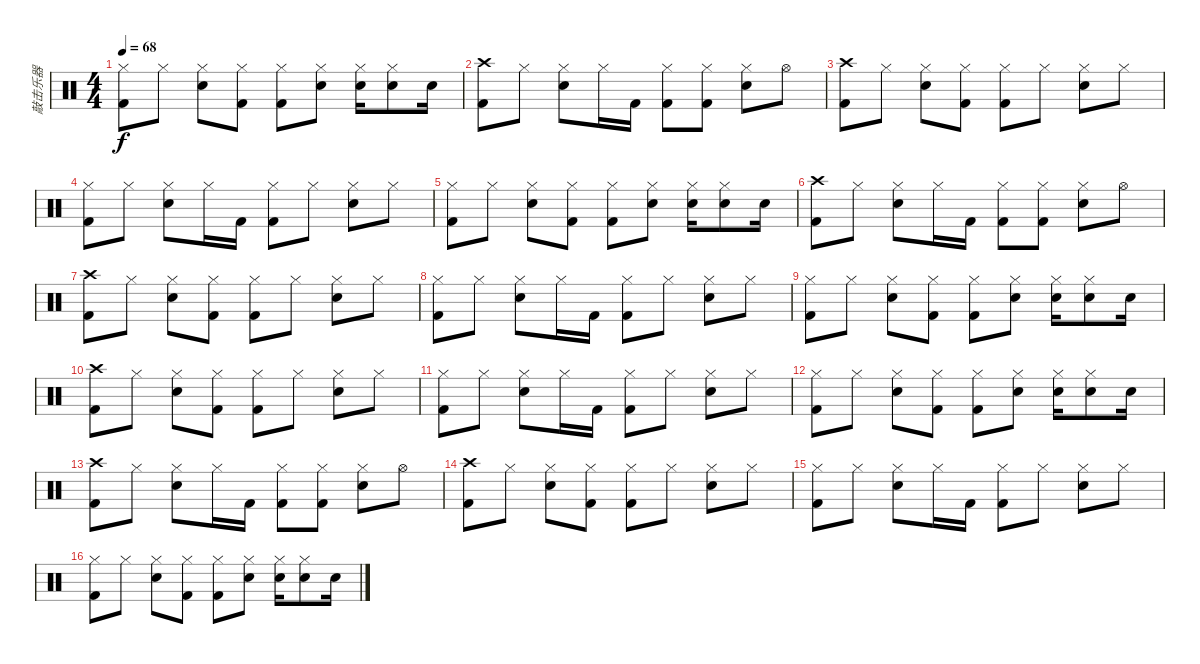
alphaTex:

\track ("敲击乐器" "敲击乐器") {instrument percussion}
\staff {score}
\articulation defaults
\ts (4 4)
\tempo 68
\clef neutral
\ks c
("Hi-Hat (closed)" "Kick (hit) 2").8{dy f} "Hi-Hat (closed)".8 ("Hi-Hat (closed)" "Snare (hit) 2").8 ("Hi-Hat (closed)" "Kick (hit) 2").8 ("Hi-Hat (closed)" "Kick (hit) 2").8 ("Hi-Hat (closed)" "Snare (hit) 2").8 ("Hi-Hat (closed)" "Snare (hit) 2").16 ("Hi-Hat (closed)" "Snare (hit) 2").8 "Snare (hit) 2".16 |
("Crash high (hit)" "Kick (hit) 2").8 "Hi-Hat (closed)".8 ("Hi-Hat (closed)" "Snare (hit) 2").8 "Hi-Hat (closed)".16 "Kick (hit) 2".16 ("Hi-Hat (closed)" "Kick (hit) 2").8 ("Hi-Hat (closed)" "Kick (hit) 2").8 ("Hi-Hat (closed)" "Snare (hit) 2").8 "Hi-Hat (open)".8 |
("Crash high (hit)" "Kick (hit) 2").8 "Hi-Hat (closed)".8 ("Hi-Hat (closed)" "Snare (hit) 2").8 ("Hi-Hat (closed)" "Kick (hit) 2").8 ("Hi-Hat (closed)" "Kick (hit) 2").8 "Hi-Hat (closed)".8 ("Hi-Hat (closed)" "Snare (hit) 2").8 "Hi-Hat (closed)".8 |
("Hi-Hat (closed)" "Kick (hit) 2").8 "Hi-Hat (closed)".8 ("Hi-Hat (closed)" "Snare (hit) 2").8 "Hi-Hat (closed)".16 "Kick (hit) 2".16 ("Hi-Hat (closed)" "Kick (hit) 2").8 "Hi-Hat (closed)".8 ("Hi-Hat (closed)" "Snare (hit) 2").8 "Hi-Hat (closed)".8 |
("Hi-Hat (closed)" "Kick (hit) 2").8 "Hi-Hat (closed)".8 ("Hi-Hat (closed)" "Snare (hit) 2").8 ("Hi-Hat (closed)" "Kick (hit) 2").8 ("Hi-Hat (closed)" "Kick (hit) 2").8 ("Hi-Hat (closed)" "Snare (hit) 2").8 ("Hi-Hat (closed)" "Snare (hit) 2").16 ("Hi-Hat (closed)" "Snare (hit) 2").8 "Snare (hit) 2".16 |
("Crash high (hit)" "Kick (hit) 2").8 "Hi-Hat (closed)".8 ("Hi-Hat (closed)" "Snare (hit) 2").8 "Hi-Hat (closed)".16 "Kick (hit) 2".16 ("Hi-Hat (closed)" "Kick (hit) 2").8 ("Hi-Hat (closed)" "Kick (hit) 2").8 ("Hi-Hat (closed)" "Snare (hit) 2").8 "Hi-Hat (open)".8 |
("Crash high (hit)" "Kick (hit) 2").8 "Hi-Hat (closed)".8 ("Hi-Hat (closed)" "Snare (hit) 2").8 ("Hi-Hat (closed)" "Kick (hit) 2").8 ("Hi-Hat (closed)" "Kick (hit) 2").8 "Hi-Hat (closed)".8 ("Hi-Hat (closed)" "Snare (hit) 2").8 "Hi-Hat (closed)".8 |
("Hi-Hat (closed)" "Kick (hit) 2").8 "Hi-Hat (closed)".8 ("Hi-Hat (closed)" "Snare (hit) 2").8 "Hi-Hat (closed)".16 "Kick (hit) 2".16 ("Hi-Hat (closed)" "Kick (hit) 2").8 "Hi-Hat (closed)".8 ("Hi-Hat (closed)" "Snare (hit) 2").8 "Hi-Hat (closed)".8 |
("Hi-Hat (closed)" "Kick (hit) 2").8 "Hi-Hat (closed)".8 ("Hi-Hat (closed)" "Snare (hit) 2").8 ("Hi-Hat (closed)" "Kick (hit) 2").8 ("Hi-Hat (closed)" "Kick (hit) 2").8 ("Hi-Hat (closed)" "Snare (hit) 2").8 ("Hi-Hat (closed)" "Snare (hit) 2").16 ("Hi-Hat (closed)" "Snare (hit) 2").8 "Snare (hit) 2".16 |
("Crash high (hit)" "Kick (hit) 2").8 "Hi-Hat (closed)".8 ("Hi-Hat (closed)" "Snare (hit) 2").8 ("Hi-Hat (closed)" "Kick (hit) 2").8 ("Hi-Hat (closed)" "Kick (hit) 2").8 "Hi-Hat (closed)".8 ("Hi-Hat (closed)" "Snare (hit) 2").8 "Hi-Hat (closed)".8 |
("Hi-Hat (closed)" "Kick (hit) 2").8 "Hi-Hat (closed)".8 ("Hi-Hat (closed)" "Snare (hit) 2").8 "Hi-Hat (closed)".16 "Kick (hit) 2".16 ("Hi-Hat (closed)" "Kick (hit) 2").8 "Hi-Hat (closed)".8 ("Hi-Hat (closed)" "Snare (hit) 2").8 "Hi-Hat (closed)".8 |
("Hi-Hat (closed)" "Kick (hit) 2").8 "Hi-Hat (closed)".8 ("Hi-Hat (closed)" "Snare (hit) 2").8 ("Hi-Hat (closed)" "Kick (hit) 2").8 ("Hi-Hat (closed)" "Kick (hit) 2").8 ("Hi-Hat (closed)" "Snare (hit) 2").8 ("Hi-Hat (closed)" "Snare (hit) 2").16 ("Hi-Hat (closed)" "Snare (hit) 2").8 "Snare (hit) 2".16 |
("Crash high (hit)" "Kick (hit) 2").8 "Hi-Hat (closed)".8 ("Hi-Hat (closed)" "Snare (hit) 2").8 "Hi-Hat (closed)".16 "Kick (hit) 2".16 ("Hi-Hat (closed)" "Kick (hit) 2").8 ("Hi-Hat (closed)" "Kick (hit) 2").8 ("Hi-Hat (closed)" "Snare (hit) 2").8 "Hi-Hat (open)".8 |
("Crash high (hit)" "Kick (hit) 2").8 "Hi-Hat (closed)".8 ("Hi-Hat (closed)" "Snare (hit) 2").8 ("Hi-Hat (closed)" "Kick (hit) 2").8 ("Hi-Hat (closed)" "Kick (hit) 2").8 "Hi-Hat (closed)".8 ("Hi-Hat (closed)" "Snare (hit) 2").8 "Hi-Hat (closed)".8 |
("Hi-Hat (closed)" "Kick (hit) 2").8 "Hi-Hat (closed)".8 ("Hi-Hat (closed)" "Snare (hit) 2").8 "Hi-Hat (closed)".16 "Kick (hit) 2".16 ("Hi-Hat (closed)" "Kick (hit) 2").8 "Hi-Hat (closed)".8 ("Hi-Hat (closed)" "Snare (hit) 2").8 "Hi-Hat (closed)".8 |
("Hi-Hat (closed)" "Kick (hit) 2").8 "Hi-Hat (closed)".8 ("Hi-Hat (closed)" "Snare (hit) 2").8 ("Hi-Hat (closed)" "Kick (hit) 2").8 ("Hi-Hat (closed)" "Kick (hit) 2").8 ("Hi-Hat (closed)" "Snare (hit) 2").8 ("Hi-Hat (closed)" "Snare (hit) 2").16 ("Hi-Hat (closed)" "Snare (hit) 2").8 "Snare (hit) 2".16
